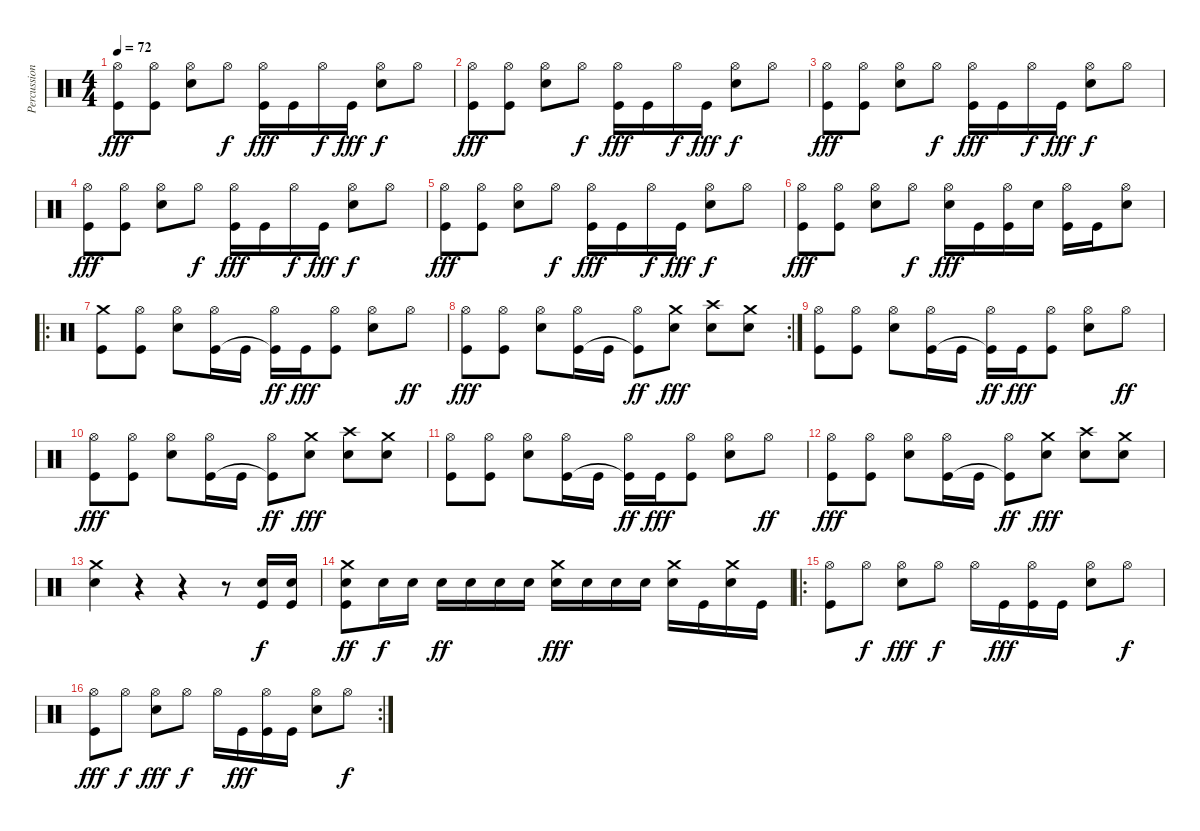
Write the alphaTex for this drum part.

\track ("Percussions" "Percussion") {instrument percussion}
\staff {score}
\articulation defaults
\ts (4 4)
\tempo 72
\clef neutral
\ks c
("Hi-Hat (open)" "Kick (hit)").8{dy fff} ("Hi-Hat (open)" "Kick (hit)").8 ("Hi-Hat (open)" "Snare (hit) 2").8 "Hi-Hat (open)".8{dy f} ("Hi-Hat (open)" "Kick (hit)").16{dy fff} "Kick (hit)".16 "Hi-Hat (open)".16{dy f} "Kick (hit)".16{dy fff} ("Hi-Hat (open)" "Snare (hit) 2").8{dy f} "Hi-Hat (open)".8 |
("Hi-Hat (open)" "Kick (hit)").8{dy fff} ("Hi-Hat (open)" "Kick (hit)").8 ("Hi-Hat (open)" "Snare (hit) 2").8 "Hi-Hat (open)".8{dy f} ("Hi-Hat (open)" "Kick (hit)").16{dy fff} "Kick (hit)".16 "Hi-Hat (open)".16{dy f} "Kick (hit)".16{dy fff} ("Hi-Hat (open)" "Snare (hit) 2").8{dy f} "Hi-Hat (open)".8 |
("Hi-Hat (open)" "Kick (hit)").8{dy fff} ("Hi-Hat (open)" "Kick (hit)").8 ("Hi-Hat (open)" "Snare (hit) 2").8 "Hi-Hat (open)".8{dy f} ("Hi-Hat (open)" "Kick (hit)").16{dy fff} "Kick (hit)".16 "Hi-Hat (open)".16{dy f} "Kick (hit)".16{dy fff} ("Hi-Hat (open)" "Snare (hit) 2").8{dy f} "Hi-Hat (open)".8 |
("Hi-Hat (open)" "Kick (hit)").8{dy fff} ("Hi-Hat (open)" "Kick (hit)").8 ("Hi-Hat (open)" "Snare (hit) 2").8 "Hi-Hat (open)".8{dy f} ("Hi-Hat (open)" "Kick (hit)").16{dy fff} "Kick (hit)".16 "Hi-Hat (open)".16{dy f} "Kick (hit)".16{dy fff} ("Hi-Hat (open)" "Snare (hit) 2").8{dy f} "Hi-Hat (open)".8 |
("Hi-Hat (open)" "Kick (hit)").8{dy fff} ("Hi-Hat (open)" "Kick (hit)").8 ("Hi-Hat (open)" "Snare (hit) 2").8 "Hi-Hat (open)".8{dy f} ("Hi-Hat (open)" "Kick (hit)").16{dy fff} "Kick (hit)".16 "Hi-Hat (open)".16{dy f} "Kick (hit)".16{dy fff} ("Hi-Hat (open)" "Snare (hit) 2").8{dy f} "Hi-Hat (open)".8 |
("Hi-Hat (open)" "Kick (hit)").8{dy fff} ("Hi-Hat (open)" "Kick (hit)").8 ("Hi-Hat (open)" "Snare (hit) 2").8 "Hi-Hat (open)".8{dy f} ("Hi-Hat (open)" "Snare (hit) 2").16{dy fff} "Kick (hit)".16 ("Hi-Hat (open)" "Kick (hit)").16 "Snare (hit) 2".16 ("Hi-Hat (open)" "Kick (hit)").16 "Kick (hit)".16 ("Hi-Hat (open)" "Snare (hit) 2").8 |
\ro
("Crash medium (hit)" "Kick (hit)").8 ("Hi-Hat (open)" "Kick (hit)").8 ("Hi-Hat (open)" "Snare (hit) 2").8 ("Hi-Hat (open)" "Kick (hit)").16 "Kick (hit)".16 ("Hi-Hat (open)" "Kick (hit)"{t}).16{dy ff} "Kick (hit)".16{dy fff} ("Hi-Hat (open)" "Kick (hit)").8 ("Hi-Hat (open)" "Snare (hit) 2").8 "Hi-Hat (open)".8{dy ff} |
\rc 2
("Hi-Hat (open)" "Kick (hit)").8{dy fff} ("Hi-Hat (open)" "Kick (hit)").8 ("Hi-Hat (open)" "Snare (hit) 2").8 ("Hi-Hat (open)" "Kick (hit)").16 "Kick (hit)".16 ("Hi-Hat (open)" "Kick (hit)"{t}).8{dy ff} ("Crash medium (hit)" "Snare (hit) 2").8{dy fff} ("Crash high (hit)" "Snare (hit) 2").8 ("Crash medium (hit)" "Snare (hit) 2").8 |
("Hi-Hat (open)" "Kick (hit)").8 ("Hi-Hat (open)" "Kick (hit)").8 ("Hi-Hat (open)" "Snare (hit) 2").8 ("Hi-Hat (open)" "Kick (hit)").16 "Kick (hit)".16 ("Hi-Hat (open)" "Kick (hit)"{t}).16{dy ff} "Kick (hit)".16{dy fff} ("Hi-Hat (open)" "Kick (hit)").8 ("Hi-Hat (open)" "Snare (hit) 2").8 "Hi-Hat (open)".8{dy ff} |
("Hi-Hat (open)" "Kick (hit)").8{dy fff} ("Hi-Hat (open)" "Kick (hit)").8 ("Hi-Hat (open)" "Snare (hit) 2").8 ("Hi-Hat (open)" "Kick (hit)").16 "Kick (hit)".16 ("Hi-Hat (open)" "Kick (hit)"{t}).8{dy ff} ("Crash medium (hit)" "Snare (hit) 2").8{dy fff} ("Crash high (hit)" "Snare (hit) 2").8 ("Crash medium (hit)" "Snare (hit) 2").8 |
("Hi-Hat (open)" "Kick (hit)").8 ("Hi-Hat (open)" "Kick (hit)").8 ("Hi-Hat (open)" "Snare (hit) 2").8 ("Hi-Hat (open)" "Kick (hit)").16 "Kick (hit)".16 ("Hi-Hat (open)" "Kick (hit)"{t}).16{dy ff} "Kick (hit)".16{dy fff} ("Hi-Hat (open)" "Kick (hit)").8 ("Hi-Hat (open)" "Snare (hit) 2").8 "Hi-Hat (open)".8{dy ff} |
("Hi-Hat (open)" "Kick (hit)").8{dy fff} ("Hi-Hat (open)" "Kick (hit)").8 ("Hi-Hat (open)" "Snare (hit) 2").8 ("Hi-Hat (open)" "Kick (hit)").16 "Kick (hit)".16 ("Hi-Hat (open)" "Kick (hit)"{t}).8{dy ff} ("Crash medium (hit)" "Snare (hit) 2").8{dy fff} ("Crash high (hit)" "Snare (hit) 2").8 ("Crash medium (hit)" "Snare (hit) 2").8 |
("Crash medium (hit)" "Snare (hit) 2").4 r.4 r.4 r.8 ("Snare (hit) 2" "Kick (hit)").16{dy f} ("Snare (hit) 2" "Kick (hit)").16 |
("Crash medium (hit)" "Snare (hit) 2" "Kick (hit)").8{dy ff} "Snare (hit) 2".16{dy f} "Snare (hit) 2".16 "Snare (hit) 2".16{dy ff} "Snare (hit) 2".16 "Snare (hit) 2".16 "Snare (hit) 2".16 ("Crash medium (hit)" "Snare (hit) 2").16{dy fff} "Snare (hit) 2".16 "Snare (hit) 2".16 "Snare (hit) 2".16 ("Crash medium (hit)" "Snare (hit) 2").16 "Kick (hit)".16 ("Crash medium (hit)" "Snare (hit) 2").16 "Kick (hit)".16 |
\ro
("Hi-Hat (open)" "Kick (hit)").8 "Hi-Hat (open)".8{dy f} ("Hi-Hat (open)" "Snare (hit) 2").8{dy fff} "Hi-Hat (open)".8{dy f} "Hi-Hat (open)".16 "Kick (hit)".16{dy fff} ("Hi-Hat (open)" "Kick (hit)").16 "Kick (hit)".16 ("Hi-Hat (open)" "Snare (hit) 2").8 "Hi-Hat (open)".8{dy f} |
\rc 2
("Hi-Hat (open)" "Kick (hit)").8{dy fff} "Hi-Hat (open)".8{dy f} ("Hi-Hat (open)" "Snare (hit) 2").8{dy fff} "Hi-Hat (open)".8{dy f} "Hi-Hat (open)".16 "Kick (hit)".16{dy fff} ("Hi-Hat (open)" "Kick (hit)").16 "Kick (hit)".16 ("Hi-Hat (open)" "Snare (hit) 2").8 "Hi-Hat (open)".8{dy f}
